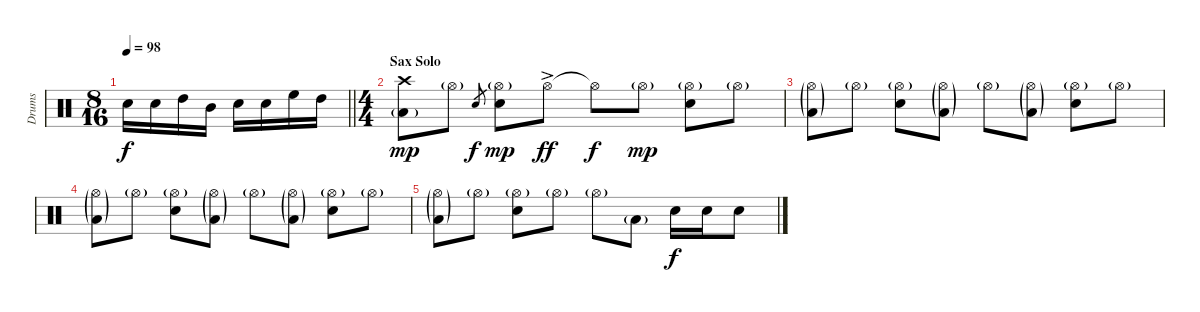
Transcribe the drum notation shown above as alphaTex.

\track ("Drums" "Drums") {instrument percussion}
\staff {score}
\articulation defaults
\ts (8 16)
\tempo 98
\clef neutral
\barLineRight lightlight
\ks c "Snare (hit) 2".16{dy f} "Snare (hit) 2".16 "High Tom (hit)".16 "Mid Tom (hit)".16 "Snare (hit) 2".16 "Snare (hit) 2".16 "High Floor Tom (hit)".16 "High Tom (hit)".16
|
\ts (4 4)
\section ("" "Sax Solo")
("Crash high (hit)" "Low Tom (hit)"{g}).8{dy mp} "Hi-Hat (open)"{g}.8 "Snare (hit) 2".8{gr dy f} ("Hi-Hat (open)"{g} "Snare (hit) 2").8{dy mp} "Hi-Hat (open)"{ac}.8{dy ff} "Hi-Hat (open)"{t}.8{dy f} "Hi-Hat (open)"{g}.8{dy mp} ("Hi-Hat (open)"{g} "Snare (hit) 2").8 "Hi-Hat (open)"{g}.8 |
("Hi-Hat (open)"{g} "Low Tom (hit)"{g}).8 "Hi-Hat (open)"{g}.8 ("Hi-Hat (open)"{g} "Snare (hit) 2").8 ("Hi-Hat (open)"{g} "Low Tom (hit)"{g}).8 "Hi-Hat (open)"{g}.8 ("Hi-Hat (open)"{g} "Low Tom (hit)"{g}).8 ("Hi-Hat (open)"{g} "Snare (hit) 2").8 "Hi-Hat (open)"{g}.8 |
("Hi-Hat (open)"{g} "Low Tom (hit)"{g}).8 "Hi-Hat (open)"{g}.8 ("Hi-Hat (open)"{g} "Snare (hit) 2").8 ("Hi-Hat (open)"{g} "Low Tom (hit)"{g}).8 "Hi-Hat (open)"{g}.8 ("Hi-Hat (open)"{g} "Low Tom (hit)"{g}).8 ("Hi-Hat (open)"{g} "Snare (hit) 2").8 "Hi-Hat (open)"{g}.8 |
("Hi-Hat (open)"{g} "Low Tom (hit)"{g}).8 "Hi-Hat (open)"{g}.8 ("Hi-Hat (open)"{g} "Snare (hit) 2").8 "Hi-Hat (open)"{g}.8 "Hi-Hat (open)"{g}.8 "Low Tom (hit)"{g}.8 "Snare (hit) 2".16{dy f} "Snare (hit) 2".16 "Snare (hit) 2".8
